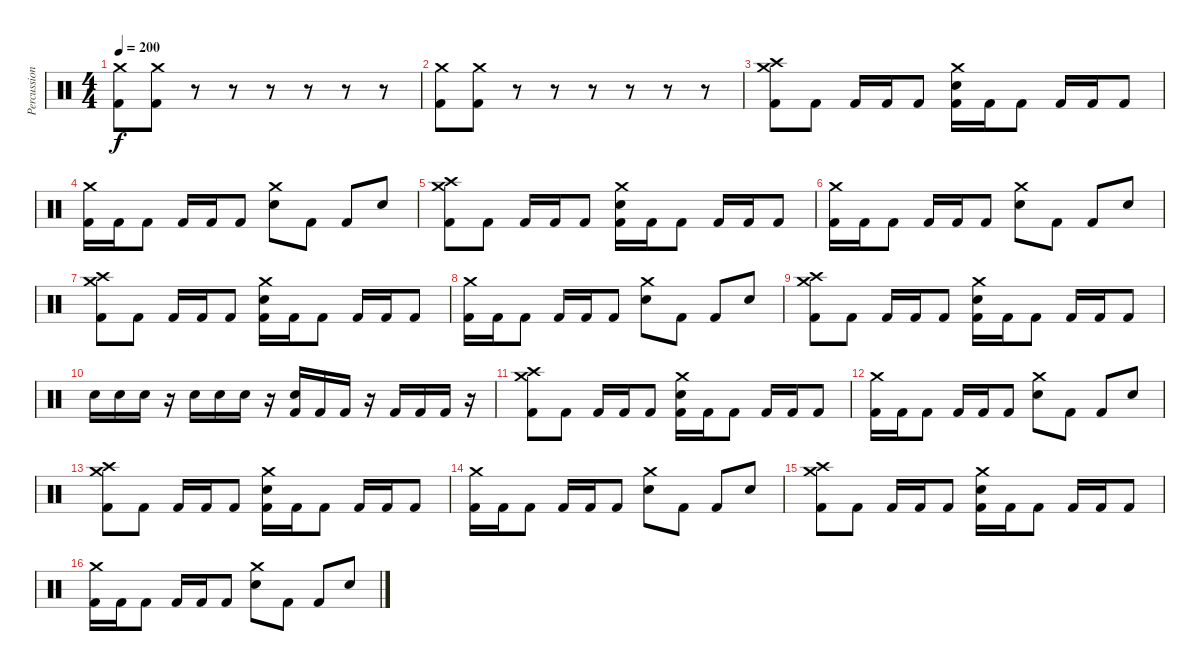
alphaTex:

\track ("Percussion" "Percussion") {instrument percussion}
\staff {score}
\articulation defaults
\ts (4 4)
\tempo 200
\clef neutral
\ks c
("Crash medium (hit)" "Kick (hit) 2").8{dy f} ("Crash medium (hit)" "Kick (hit) 2").8 r.8 r.8 r.8 r.8 r.8 r.8 |
("Crash medium (hit)" "Kick (hit) 2").8 ("Crash medium (hit)" "Kick (hit) 2").8 r.8 r.8 r.8 r.8 r.8 r.8 |
("Crash high (hit)" "Crash medium (hit)" "Kick (hit) 2").8 "Kick (hit) 2".8 "Kick (hit) 2".16 "Kick (hit) 2".16 "Kick (hit) 2".8 ("Crash medium (hit)" "Snare (hit) 2" "Kick (hit) 2").16 "Kick (hit) 2".16 "Kick (hit) 2".8 "Kick (hit) 2".16 "Kick (hit) 2".16 "Kick (hit) 2".8 |
("Crash medium (hit)" "Kick (hit) 2").16 "Kick (hit) 2".16 "Kick (hit) 2".8 "Kick (hit) 2".16 "Kick (hit) 2".16 "Kick (hit) 2".8 ("Crash medium (hit)" "Snare (hit) 2").8 "Kick (hit) 2".8 "Kick (hit) 2".8 "Snare (hit) 2".8 |
("Crash high (hit)" "Crash medium (hit)" "Kick (hit) 2").8 "Kick (hit) 2".8 "Kick (hit) 2".16 "Kick (hit) 2".16 "Kick (hit) 2".8 ("Crash medium (hit)" "Snare (hit) 2" "Kick (hit) 2").16 "Kick (hit) 2".16 "Kick (hit) 2".8 "Kick (hit) 2".16 "Kick (hit) 2".16 "Kick (hit) 2".8 |
("Crash medium (hit)" "Kick (hit) 2").16 "Kick (hit) 2".16 "Kick (hit) 2".8 "Kick (hit) 2".16 "Kick (hit) 2".16 "Kick (hit) 2".8 ("Crash medium (hit)" "Snare (hit) 2").8 "Kick (hit) 2".8 "Kick (hit) 2".8 "Snare (hit) 2".8 |
("Crash high (hit)" "Crash medium (hit)" "Kick (hit) 2").8 "Kick (hit) 2".8 "Kick (hit) 2".16 "Kick (hit) 2".16 "Kick (hit) 2".8 ("Crash medium (hit)" "Snare (hit) 2" "Kick (hit) 2").16 "Kick (hit) 2".16 "Kick (hit) 2".8 "Kick (hit) 2".16 "Kick (hit) 2".16 "Kick (hit) 2".8 |
("Crash medium (hit)" "Kick (hit) 2").16 "Kick (hit) 2".16 "Kick (hit) 2".8 "Kick (hit) 2".16 "Kick (hit) 2".16 "Kick (hit) 2".8 ("Crash medium (hit)" "Snare (hit) 2").8 "Kick (hit) 2".8 "Kick (hit) 2".8 "Snare (hit) 2".8 |
("Crash high (hit)" "Crash medium (hit)" "Kick (hit) 2").8 "Kick (hit) 2".8 "Kick (hit) 2".16 "Kick (hit) 2".16 "Kick (hit) 2".8 ("Crash medium (hit)" "Snare (hit) 2" "Kick (hit) 2").16 "Kick (hit) 2".16 "Kick (hit) 2".8 "Kick (hit) 2".16 "Kick (hit) 2".16 "Kick (hit) 2".8 |
"Snare (hit) 2".16 "Snare (hit) 2".16 "Snare (hit) 2".16 r.16 "Snare (hit) 2".16 "Snare (hit) 2".16 "Snare (hit) 2".16 r.16 ("Snare (hit)" "Kick (hit) 2").16 "Kick (hit) 2".16 "Kick (hit) 2".16 r.16 "Kick (hit) 2".16 "Kick (hit) 2".16 "Kick (hit) 2".16 r.16 |
("Crash high (hit)" "Crash medium (hit)" "Kick (hit) 2").8 "Kick (hit) 2".8 "Kick (hit) 2".16 "Kick (hit) 2".16 "Kick (hit) 2".8 ("Crash medium (hit)" "Snare (hit) 2" "Kick (hit) 2").16 "Kick (hit) 2".16 "Kick (hit) 2".8 "Kick (hit) 2".16 "Kick (hit) 2".16 "Kick (hit) 2".8 |
("Crash medium (hit)" "Kick (hit) 2").16 "Kick (hit) 2".16 "Kick (hit) 2".8 "Kick (hit) 2".16 "Kick (hit) 2".16 "Kick (hit) 2".8 ("Crash medium (hit)" "Snare (hit) 2").8 "Kick (hit) 2".8 "Kick (hit) 2".8 "Snare (hit) 2".8 |
("Crash high (hit)" "Crash medium (hit)" "Kick (hit) 2").8 "Kick (hit) 2".8 "Kick (hit) 2".16 "Kick (hit) 2".16 "Kick (hit) 2".8 ("Crash medium (hit)" "Snare (hit) 2" "Kick (hit) 2").16 "Kick (hit) 2".16 "Kick (hit) 2".8 "Kick (hit) 2".16 "Kick (hit) 2".16 "Kick (hit) 2".8 |
("Crash medium (hit)" "Kick (hit) 2").16 "Kick (hit) 2".16 "Kick (hit) 2".8 "Kick (hit) 2".16 "Kick (hit) 2".16 "Kick (hit) 2".8 ("Crash medium (hit)" "Snare (hit) 2").8 "Kick (hit) 2".8 "Kick (hit) 2".8 "Snare (hit) 2".8 |
("Crash high (hit)" "Crash medium (hit)" "Kick (hit) 2").8 "Kick (hit) 2".8 "Kick (hit) 2".16 "Kick (hit) 2".16 "Kick (hit) 2".8 ("Crash medium (hit)" "Snare (hit) 2" "Kick (hit) 2").16 "Kick (hit) 2".16 "Kick (hit) 2".8 "Kick (hit) 2".16 "Kick (hit) 2".16 "Kick (hit) 2".8 |
("Crash medium (hit)" "Kick (hit) 2").16 "Kick (hit) 2".16 "Kick (hit) 2".8 "Kick (hit) 2".16 "Kick (hit) 2".16 "Kick (hit) 2".8 ("Crash medium (hit)" "Snare (hit) 2").8 "Kick (hit) 2".8 "Kick (hit) 2".8 "Snare (hit) 2".8
